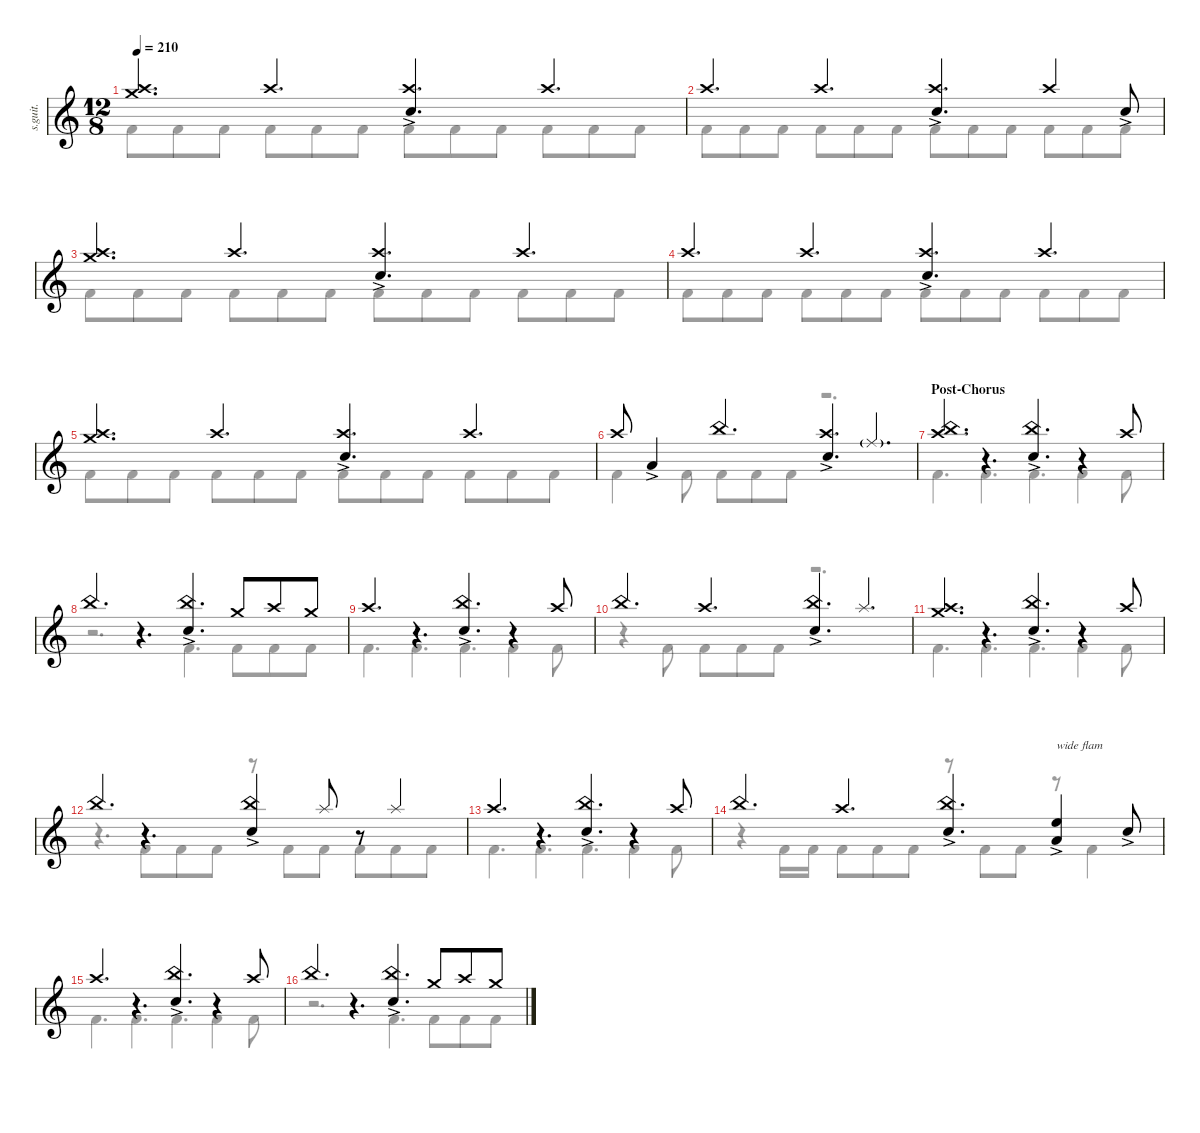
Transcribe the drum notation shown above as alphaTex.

\defaultSystemsLayout 4
\hideDynamics
\bracketExtendMode nobrackets
\track ("Percussion" "s.guit.") {instrument percussion}
\staff {score}
\articulation defaults
\voice
\ts (12 8)
\tempo 210
\clef g2
\ks c
("Crash high (hit)" "Crash medium (hit)").4{d lyrics (0 "") lyrics (1 "") lyrics (2 "") lyrics (3 "") lyrics (4 "") dy f} "Crash high (hit)".4{d lyrics (0 "") lyrics (1 "") lyrics (2 "") lyrics (3 "") lyrics (4 "")} ("Crash high (hit)" "Snare (hit) 2"{ac}).4{d lyrics (0 "") lyrics (1 "") lyrics (2 "") lyrics (3 "") lyrics (4 "")} "Crash high (hit)".4{d lyrics (0 "") lyrics (1 "") lyrics (2 "") lyrics (3 "") lyrics (4 "")} |
"Crash high (hit)".4{d lyrics (0 "") lyrics (1 "") lyrics (2 "") lyrics (3 "") lyrics (4 "")} "Crash high (hit)".4{d lyrics (0 "") lyrics (1 "") lyrics (2 "") lyrics (3 "") lyrics (4 "")} ("Crash high (hit)" "Snare (hit) 2"{ac}).4{d lyrics (0 "") lyrics (1 "") lyrics (2 "") lyrics (3 "") lyrics (4 "")} "Crash high (hit)".4{lyrics (0 "") lyrics (1 "") lyrics (2 "") lyrics (3 "") lyrics (4 "")} "Snare (hit) 2"{ac}.8{lyrics (0 "") lyrics (1 "") lyrics (2 "") lyrics (3 "") lyrics (4 "") dy mf} |
("Crash high (hit)" "Crash medium (hit)").4{d lyrics (0 "") lyrics (1 "") lyrics (2 "") lyrics (3 "") lyrics (4 "") dy f} "Crash high (hit)".4{d lyrics (0 "") lyrics (1 "") lyrics (2 "") lyrics (3 "") lyrics (4 "")} ("Crash high (hit)" "Snare (hit) 2"{ac}).4{d lyrics (0 "") lyrics (1 "") lyrics (2 "") lyrics (3 "") lyrics (4 "")} "Crash high (hit)".4{d lyrics (0 "") lyrics (1 "") lyrics (2 "") lyrics (3 "") lyrics (4 "")} |
"Crash high (hit)".4{d lyrics (0 "") lyrics (1 "") lyrics (2 "") lyrics (3 "") lyrics (4 "")} "Crash high (hit)".4{d lyrics (0 "") lyrics (1 "") lyrics (2 "") lyrics (3 "") lyrics (4 "")} ("Crash high (hit)" "Snare (hit) 2"{ac}).4{d lyrics (0 "") lyrics (1 "") lyrics (2 "") lyrics (3 "") lyrics (4 "")} "Crash high (hit)".4{d lyrics (0 "") lyrics (1 "") lyrics (2 "") lyrics (3 "") lyrics (4 "")} |
("Crash high (hit)" "Crash medium (hit)").4{d lyrics (0 "") lyrics (1 "") lyrics (2 "") lyrics (3 "") lyrics (4 "")} "Crash high (hit)".4{d lyrics (0 "") lyrics (1 "") lyrics (2 "") lyrics (3 "") lyrics (4 "")} ("Crash high (hit)" "Snare (hit) 2"{ac}).4{d lyrics (0 "") lyrics (1 "") lyrics (2 "") lyrics (3 "") lyrics (4 "")} "Crash high (hit)".4{d lyrics (0 "") lyrics (1 "") lyrics (2 "") lyrics (3 "") lyrics (4 "")} |
"Crash high (hit)".8{lyrics (0 "") lyrics (1 "") lyrics (2 "") lyrics (3 "") lyrics (4 "")} "Low Tom (hit)"{ac}.4{lyrics (0 "") lyrics (1 "") lyrics (2 "") lyrics (3 "") lyrics (4 "") dy mf} "China (hit)".4{d lyrics (0 "") lyrics (1 "") lyrics (2 "") lyrics (3 "") lyrics (4 "") dy f} ("Crash high (hit)" "Snare (hit) 2"{ac}).4{d lyrics (0 "") lyrics (1 "") lyrics (2 "") lyrics (3 "") lyrics (4 "")} "Ride (middle)"{g}.4{d lyrics (0 "") lyrics (1 "") lyrics (2 "") lyrics (3 "") lyrics (4 "") dy ff} |
\section ("" "Post-Chorus")
("Crash high (hit)" "China (hit)").4{d lyrics (0 "") lyrics (1 "") lyrics (2 "") lyrics (3 "") lyrics (4 "") dy f} r.4{d} ("China (hit)" "Snare (hit) 2"{ac}).4{d lyrics (0 "") lyrics (1 "") lyrics (2 "") lyrics (3 "") lyrics (4 "")} r.4 "Crash high (hit)".8{lyrics (0 "") lyrics (1 "") lyrics (2 "") lyrics (3 "") lyrics (4 "")} |
"China (hit)".4{d lyrics (0 "") lyrics (1 "") lyrics (2 "") lyrics (3 "") lyrics (4 "")} r.4{d} ("China (hit)" "Snare (hit) 2"{ac}).4{d lyrics (0 "") lyrics (1 "") lyrics (2 "") lyrics (3 "") lyrics (4 "")} "Crash medium (hit)".8{lyrics (0 "") lyrics (1 "") lyrics (2 "") lyrics (3 "") lyrics (4 "")} "Crash high (hit)".8{lyrics (0 "") lyrics (1 "") lyrics (2 "") lyrics (3 "") lyrics (4 "")} "Crash medium (hit)".8{lyrics (0 "") lyrics (1 "") lyrics (2 "") lyrics (3 "") lyrics (4 "")} |
"Crash high (hit)".4{d lyrics (0 "") lyrics (1 "") lyrics (2 "") lyrics (3 "") lyrics (4 "")} r.4{d} ("China (hit)" "Snare (hit) 2"{ac}).4{d lyrics (0 "") lyrics (1 "") lyrics (2 "") lyrics (3 "") lyrics (4 "")} r.4 "Crash high (hit)".8{lyrics (0 "") lyrics (1 "") lyrics (2 "") lyrics (3 "") lyrics (4 "")} |
"China (hit)".4{d lyrics (0 "") lyrics (1 "") lyrics (2 "") lyrics (3 "") lyrics (4 "")} "Crash high (hit)".4{d lyrics (0 "") lyrics (1 "") lyrics (2 "") lyrics (3 "") lyrics (4 "")} ("China (hit)" "Snare (hit) 2"{ac}).4{d lyrics (0 "") lyrics (1 "") lyrics (2 "") lyrics (3 "") lyrics (4 "")} "Splash (hit)".4{d lyrics (0 "") lyrics (1 "") lyrics (2 "") lyrics (3 "") lyrics (4 "")} |
("Crash high (hit)" "Crash medium (hit)").4{d lyrics (0 "") lyrics (1 "") lyrics (2 "") lyrics (3 "") lyrics (4 "")} r.4{d} ("China (hit)" "Snare (hit) 2"{ac}).4{d lyrics (0 "") lyrics (1 "") lyrics (2 "") lyrics (3 "") lyrics (4 "")} r.4 "Crash high (hit)".8{lyrics (0 "") lyrics (1 "") lyrics (2 "") lyrics (3 "") lyrics (4 "")} |
"China (hit)".4{d lyrics (0 "") lyrics (1 "") lyrics (2 "") lyrics (3 "") lyrics (4 "")} r.4{d} ("China (hit)" "Snare (hit) 2"{ac}).4{lyrics (0 "") lyrics (1 "") lyrics (2 "") lyrics (3 "") lyrics (4 "")} "Splash (hit)".8{lyrics (0 "") lyrics (1 "") lyrics (2 "") lyrics (3 "") lyrics (4 "")} r.8 "Splash (hit)".4{lyrics (0 "") lyrics (1 "") lyrics (2 "") lyrics (3 "") lyrics (4 "")} |
"Crash high (hit)".4{d lyrics (0 "") lyrics (1 "") lyrics (2 "") lyrics (3 "") lyrics (4 "")} r.4{d} ("China (hit)" "Snare (hit) 2"{ac}).4{d lyrics (0 "") lyrics (1 "") lyrics (2 "") lyrics (3 "") lyrics (4 "")} r.4 "Crash high (hit)".8{lyrics (0 "") lyrics (1 "") lyrics (2 "") lyrics (3 "") lyrics (4 "")} |
"China (hit)".4{d lyrics (0 "") lyrics (1 "") lyrics (2 "") lyrics (3 "") lyrics (4 "")} "Crash high (hit)".4{d lyrics (0 "") lyrics (1 "") lyrics (2 "") lyrics (3 "") lyrics (4 "")} ("China (hit)" "Snare (hit) 2"{ac}).4{d lyrics (0 "") lyrics (1 "") lyrics (2 "") lyrics (3 "") lyrics (4 "")} ("Low Tom (hit)"{ac} "High Floor Tom (hit)"{ac}).4{txt "wide flam" lyrics (0 "") lyrics (1 "") lyrics (2 "") lyrics (3 "") lyrics (4 "") dy mf} "Snare (hit) 2"{ac}.8{lyrics (0 "") lyrics (1 "") lyrics (2 "") lyrics (3 "") lyrics (4 "")} |
"Crash high (hit)".4{d lyrics (0 "") lyrics (1 "") lyrics (2 "") lyrics (3 "") lyrics (4 "") dy f} r.4{d} ("China (hit)" "Snare (hit) 2"{ac}).4{d lyrics (0 "") lyrics (1 "") lyrics (2 "") lyrics (3 "") lyrics (4 "")} r.4 "Crash high (hit)".8{lyrics (0 "") lyrics (1 "") lyrics (2 "") lyrics (3 "") lyrics (4 "")} |
"China (hit)".4{d lyrics (0 "") lyrics (1 "") lyrics (2 "") lyrics (3 "") lyrics (4 "")} r.4{d} ("China (hit)" "Snare (hit) 2"{ac}).4{d lyrics (0 "") lyrics (1 "") lyrics (2 "") lyrics (3 "") lyrics (4 "")} "Crash medium (hit)".8{lyrics (0 "") lyrics (1 "") lyrics (2 "") lyrics (3 "") lyrics (4 "")} "Crash high (hit)".8{lyrics (0 "") lyrics (1 "") lyrics (2 "") lyrics (3 "") lyrics (4 "")} "Crash medium (hit)".8{lyrics (0 "") lyrics (1 "") lyrics (2 "") lyrics (3 "") lyrics (4 "")}
\voice
\clef g2
\ottava regular
\simile none
\ks c "Kick (hit) 2".8{lyrics (0 "") lyrics (1 "") lyrics (2 "") lyrics (3 "") lyrics (4 "") dy f} "Kick (hit) 2".8{lyrics (0 "") lyrics (1 "") lyrics (2 "") lyrics (3 "") lyrics (4 "")} "Kick (hit) 2".8{lyrics (0 "") lyrics (1 "") lyrics (2 "") lyrics (3 "") lyrics (4 "")} "Kick (hit) 2".8{lyrics (0 "") lyrics (1 "") lyrics (2 "") lyrics (3 "") lyrics (4 "")} "Kick (hit) 2".8{lyrics (0 "") lyrics (1 "") lyrics (2 "") lyrics (3 "") lyrics (4 "")} "Kick (hit) 2".8{lyrics (0 "") lyrics (1 "") lyrics (2 "") lyrics (3 "") lyrics (4 "")} "Kick (hit) 2".8{lyrics (0 "") lyrics (1 "") lyrics (2 "") lyrics (3 "") lyrics (4 "")} "Kick (hit) 2".8{lyrics (0 "") lyrics (1 "") lyrics (2 "") lyrics (3 "") lyrics (4 "")} "Kick (hit) 2".8{lyrics (0 "") lyrics (1 "") lyrics (2 "") lyrics (3 "") lyrics (4 "")} "Kick (hit) 2".8{lyrics (0 "") lyrics (1 "") lyrics (2 "") lyrics (3 "") lyrics (4 "")} "Kick (hit) 2".8{lyrics (0 "") lyrics (1 "") lyrics (2 "") lyrics (3 "") lyrics (4 "")} "Kick (hit) 2".8{lyrics (0 "") lyrics (1 "") lyrics (2 "") lyrics (3 "") lyrics (4 "")}
|
"Kick (hit) 2".8{lyrics (0 "") lyrics (1 "") lyrics (2 "") lyrics (3 "") lyrics (4 "")} "Kick (hit) 2".8{lyrics (0 "") lyrics (1 "") lyrics (2 "") lyrics (3 "") lyrics (4 "")} "Kick (hit) 2".8{lyrics (0 "") lyrics (1 "") lyrics (2 "") lyrics (3 "") lyrics (4 "")} "Kick (hit) 2".8{lyrics (0 "") lyrics (1 "") lyrics (2 "") lyrics (3 "") lyrics (4 "")} "Kick (hit) 2".8{lyrics (0 "") lyrics (1 "") lyrics (2 "") lyrics (3 "") lyrics (4 "")} "Kick (hit) 2".8{lyrics (0 "") lyrics (1 "") lyrics (2 "") lyrics (3 "") lyrics (4 "")} "Kick (hit) 2".8{lyrics (0 "") lyrics (1 "") lyrics (2 "") lyrics (3 "") lyrics (4 "")} "Kick (hit) 2".8{lyrics (0 "") lyrics (1 "") lyrics (2 "") lyrics (3 "") lyrics (4 "")} "Kick (hit) 2".8{lyrics (0 "") lyrics (1 "") lyrics (2 "") lyrics (3 "") lyrics (4 "")} "Kick (hit) 2".8{lyrics (0 "") lyrics (1 "") lyrics (2 "") lyrics (3 "") lyrics (4 "")} "Kick (hit) 2".8{lyrics (0 "") lyrics (1 "") lyrics (2 "") lyrics (3 "") lyrics (4 "")} "Kick (hit) 2".8{lyrics (0 "") lyrics (1 "") lyrics (2 "") lyrics (3 "") lyrics (4 "")} |
"Kick (hit) 2".8{lyrics (0 "") lyrics (1 "") lyrics (2 "") lyrics (3 "") lyrics (4 "")} "Kick (hit) 2".8{lyrics (0 "") lyrics (1 "") lyrics (2 "") lyrics (3 "") lyrics (4 "")} "Kick (hit) 2".8{lyrics (0 "") lyrics (1 "") lyrics (2 "") lyrics (3 "") lyrics (4 "")} "Kick (hit) 2".8{lyrics (0 "") lyrics (1 "") lyrics (2 "") lyrics (3 "") lyrics (4 "")} "Kick (hit) 2".8{lyrics (0 "") lyrics (1 "") lyrics (2 "") lyrics (3 "") lyrics (4 "")} "Kick (hit) 2".8{lyrics (0 "") lyrics (1 "") lyrics (2 "") lyrics (3 "") lyrics (4 "")} "Kick (hit) 2".8{lyrics (0 "") lyrics (1 "") lyrics (2 "") lyrics (3 "") lyrics (4 "")} "Kick (hit) 2".8{lyrics (0 "") lyrics (1 "") lyrics (2 "") lyrics (3 "") lyrics (4 "")} "Kick (hit) 2".8{lyrics (0 "") lyrics (1 "") lyrics (2 "") lyrics (3 "") lyrics (4 "")} "Kick (hit) 2".8{lyrics (0 "") lyrics (1 "") lyrics (2 "") lyrics (3 "") lyrics (4 "")} "Kick (hit) 2".8{lyrics (0 "") lyrics (1 "") lyrics (2 "") lyrics (3 "") lyrics (4 "")} "Kick (hit) 2".8{lyrics (0 "") lyrics (1 "") lyrics (2 "") lyrics (3 "") lyrics (4 "")} |
"Kick (hit) 2".8{lyrics (0 "") lyrics (1 "") lyrics (2 "") lyrics (3 "") lyrics (4 "")} "Kick (hit) 2".8{lyrics (0 "") lyrics (1 "") lyrics (2 "") lyrics (3 "") lyrics (4 "")} "Kick (hit) 2".8{lyrics (0 "") lyrics (1 "") lyrics (2 "") lyrics (3 "") lyrics (4 "")} "Kick (hit) 2".8{lyrics (0 "") lyrics (1 "") lyrics (2 "") lyrics (3 "") lyrics (4 "")} "Kick (hit) 2".8{lyrics (0 "") lyrics (1 "") lyrics (2 "") lyrics (3 "") lyrics (4 "")} "Kick (hit) 2".8{lyrics (0 "") lyrics (1 "") lyrics (2 "") lyrics (3 "") lyrics (4 "")} "Kick (hit) 2".8{lyrics (0 "") lyrics (1 "") lyrics (2 "") lyrics (3 "") lyrics (4 "")} "Kick (hit) 2".8{lyrics (0 "") lyrics (1 "") lyrics (2 "") lyrics (3 "") lyrics (4 "")} "Kick (hit) 2".8{lyrics (0 "") lyrics (1 "") lyrics (2 "") lyrics (3 "") lyrics (4 "")} "Kick (hit) 2".8{lyrics (0 "") lyrics (1 "") lyrics (2 "") lyrics (3 "") lyrics (4 "")} "Kick (hit) 2".8{lyrics (0 "") lyrics (1 "") lyrics (2 "") lyrics (3 "") lyrics (4 "")} "Kick (hit) 2".8{lyrics (0 "") lyrics (1 "") lyrics (2 "") lyrics (3 "") lyrics (4 "")} |
"Kick (hit) 2".8{lyrics (0 "") lyrics (1 "") lyrics (2 "") lyrics (3 "") lyrics (4 "")} "Kick (hit) 2".8{lyrics (0 "") lyrics (1 "") lyrics (2 "") lyrics (3 "") lyrics (4 "")} "Kick (hit) 2".8{lyrics (0 "") lyrics (1 "") lyrics (2 "") lyrics (3 "") lyrics (4 "")} "Kick (hit) 2".8{lyrics (0 "") lyrics (1 "") lyrics (2 "") lyrics (3 "") lyrics (4 "")} "Kick (hit) 2".8{lyrics (0 "") lyrics (1 "") lyrics (2 "") lyrics (3 "") lyrics (4 "")} "Kick (hit) 2".8{lyrics (0 "") lyrics (1 "") lyrics (2 "") lyrics (3 "") lyrics (4 "")} "Kick (hit) 2".8{lyrics (0 "") lyrics (1 "") lyrics (2 "") lyrics (3 "") lyrics (4 "")} "Kick (hit) 2".8{lyrics (0 "") lyrics (1 "") lyrics (2 "") lyrics (3 "") lyrics (4 "")} "Kick (hit) 2".8{lyrics (0 "") lyrics (1 "") lyrics (2 "") lyrics (3 "") lyrics (4 "")} "Kick (hit) 2".8{lyrics (0 "") lyrics (1 "") lyrics (2 "") lyrics (3 "") lyrics (4 "")} "Kick (hit) 2".8{lyrics (0 "") lyrics (1 "") lyrics (2 "") lyrics (3 "") lyrics (4 "")} "Kick (hit) 2".8{lyrics (0 "") lyrics (1 "") lyrics (2 "") lyrics (3 "") lyrics (4 "")} |
"Kick (hit) 2".4{lyrics (0 "") lyrics (1 "") lyrics (2 "") lyrics (3 "") lyrics (4 "")} "Kick (hit) 2".8{lyrics (0 "") lyrics (1 "") lyrics (2 "") lyrics (3 "") lyrics (4 "")} "Kick (hit) 2".8{lyrics (0 "") lyrics (1 "") lyrics (2 "") lyrics (3 "") lyrics (4 "")} "Kick (hit) 2".8{lyrics (0 "") lyrics (1 "") lyrics (2 "") lyrics (3 "") lyrics (4 "")} "Kick (hit) 2".8{lyrics (0 "") lyrics (1 "") lyrics (2 "") lyrics (3 "") lyrics (4 "")} r.2{d} |
"Kick (hit) 2".4{d lyrics (0 "") lyrics (1 "") lyrics (2 "") lyrics (3 "") lyrics (4 "")} "Kick (hit) 2".4{d lyrics (0 "") lyrics (1 "") lyrics (2 "") lyrics (3 "") lyrics (4 "")} "Kick (hit) 2".4{d lyrics (0 "") lyrics (1 "") lyrics (2 "") lyrics (3 "") lyrics (4 "")} "Kick (hit) 2".4{lyrics (0 "") lyrics (1 "") lyrics (2 "") lyrics (3 "") lyrics (4 "")} "Kick (hit) 2".8{lyrics (0 "") lyrics (1 "") lyrics (2 "") lyrics (3 "") lyrics (4 "")} |
r.2{d} "Kick (hit) 2".4{d lyrics (0 "") lyrics (1 "") lyrics (2 "") lyrics (3 "") lyrics (4 "")} "Kick (hit) 2".8{lyrics (0 "") lyrics (1 "") lyrics (2 "") lyrics (3 "") lyrics (4 "")} "Kick (hit) 2".8{lyrics (0 "") lyrics (1 "") lyrics (2 "") lyrics (3 "") lyrics (4 "")} "Kick (hit) 2".8{lyrics (0 "") lyrics (1 "") lyrics (2 "") lyrics (3 "") lyrics (4 "")} |
"Kick (hit) 2".4{d lyrics (0 "") lyrics (1 "") lyrics (2 "") lyrics (3 "") lyrics (4 "")} "Kick (hit) 2".4{d lyrics (0 "") lyrics (1 "") lyrics (2 "") lyrics (3 "") lyrics (4 "")} "Kick (hit) 2".4{d lyrics (0 "") lyrics (1 "") lyrics (2 "") lyrics (3 "") lyrics (4 "")} "Kick (hit) 2".4{lyrics (0 "") lyrics (1 "") lyrics (2 "") lyrics (3 "") lyrics (4 "")} "Kick (hit) 2".8{lyrics (0 "") lyrics (1 "") lyrics (2 "") lyrics (3 "") lyrics (4 "")} |
r.4 "Kick (hit) 2".8{lyrics (0 "") lyrics (1 "") lyrics (2 "") lyrics (3 "") lyrics (4 "")} "Kick (hit) 2".8{lyrics (0 "") lyrics (1 "") lyrics (2 "") lyrics (3 "") lyrics (4 "")} "Kick (hit) 2".8{lyrics (0 "") lyrics (1 "") lyrics (2 "") lyrics (3 "") lyrics (4 "")} "Kick (hit) 2".8{lyrics (0 "") lyrics (1 "") lyrics (2 "") lyrics (3 "") lyrics (4 "")} r.2{d} |
"Kick (hit) 2".4{d lyrics (0 "") lyrics (1 "") lyrics (2 "") lyrics (3 "") lyrics (4 "")} "Kick (hit) 2".4{d lyrics (0 "") lyrics (1 "") lyrics (2 "") lyrics (3 "") lyrics (4 "")} "Kick (hit) 2".4{d lyrics (0 "") lyrics (1 "") lyrics (2 "") lyrics (3 "") lyrics (4 "")} "Kick (hit) 2".4{lyrics (0 "") lyrics (1 "") lyrics (2 "") lyrics (3 "") lyrics (4 "")} "Kick (hit) 2".8{lyrics (0 "") lyrics (1 "") lyrics (2 "") lyrics (3 "") lyrics (4 "")} |
r.4{d} "Kick (hit) 2".8{lyrics (0 "") lyrics (1 "") lyrics (2 "") lyrics (3 "") lyrics (4 "")} "Kick (hit) 2".8{lyrics (0 "") lyrics (1 "") lyrics (2 "") lyrics (3 "") lyrics (4 "")} "Kick (hit) 2".8{lyrics (0 "") lyrics (1 "") lyrics (2 "") lyrics (3 "") lyrics (4 "")} r.8 "Kick (hit) 2".8{lyrics (0 "") lyrics (1 "") lyrics (2 "") lyrics (3 "") lyrics (4 "")} "Kick (hit) 2".8{lyrics (0 "") lyrics (1 "") lyrics (2 "") lyrics (3 "") lyrics (4 "")} "Kick (hit) 2".8{lyrics (0 "") lyrics (1 "") lyrics (2 "") lyrics (3 "") lyrics (4 "")} "Kick (hit) 2".8{lyrics (0 "") lyrics (1 "") lyrics (2 "") lyrics (3 "") lyrics (4 "")} "Kick (hit) 2".8{lyrics (0 "") lyrics (1 "") lyrics (2 "") lyrics (3 "") lyrics (4 "")} |
"Kick (hit) 2".4{d lyrics (0 "") lyrics (1 "") lyrics (2 "") lyrics (3 "") lyrics (4 "")} "Kick (hit) 2".4{d lyrics (0 "") lyrics (1 "") lyrics (2 "") lyrics (3 "") lyrics (4 "")} "Kick (hit) 2".4{d lyrics (0 "") lyrics (1 "") lyrics (2 "") lyrics (3 "") lyrics (4 "")} "Kick (hit) 2".4{lyrics (0 "") lyrics (1 "") lyrics (2 "") lyrics (3 "") lyrics (4 "")} "Kick (hit) 2".8{lyrics (0 "") lyrics (1 "") lyrics (2 "") lyrics (3 "") lyrics (4 "")} |
r.4 "Kick (hit) 2".16{lyrics (0 "") lyrics (1 "") lyrics (2 "") lyrics (3 "") lyrics (4 "")} "Kick (hit) 2".16{lyrics (0 "") lyrics (1 "") lyrics (2 "") lyrics (3 "") lyrics (4 "")} "Kick (hit) 2".8{lyrics (0 "") lyrics (1 "") lyrics (2 "") lyrics (3 "") lyrics (4 "")} "Kick (hit) 2".8{lyrics (0 "") lyrics (1 "") lyrics (2 "") lyrics (3 "") lyrics (4 "")} "Kick (hit) 2".8{lyrics (0 "") lyrics (1 "") lyrics (2 "") lyrics (3 "") lyrics (4 "")} r.8 "Kick (hit) 2".8{lyrics (0 "") lyrics (1 "") lyrics (2 "") lyrics (3 "") lyrics (4 "")} "Kick (hit) 2".8{lyrics (0 "") lyrics (1 "") lyrics (2 "") lyrics (3 "") lyrics (4 "")} r.8 "Kick (hit) 2".4{lyrics (0 "") lyrics (1 "") lyrics (2 "") lyrics (3 "") lyrics (4 "")} |
"Kick (hit) 2".4{d lyrics (0 "") lyrics (1 "") lyrics (2 "") lyrics (3 "") lyrics (4 "")} "Kick (hit) 2".4{d lyrics (0 "") lyrics (1 "") lyrics (2 "") lyrics (3 "") lyrics (4 "")} "Kick (hit) 2".4{d lyrics (0 "") lyrics (1 "") lyrics (2 "") lyrics (3 "") lyrics (4 "")} "Kick (hit) 2".4{lyrics (0 "") lyrics (1 "") lyrics (2 "") lyrics (3 "") lyrics (4 "")} "Kick (hit) 2".8{lyrics (0 "") lyrics (1 "") lyrics (2 "") lyrics (3 "") lyrics (4 "")} |
r.2{d} "Kick (hit) 2".4{d lyrics (0 "") lyrics (1 "") lyrics (2 "") lyrics (3 "") lyrics (4 "")} "Kick (hit) 2".8{lyrics (0 "") lyrics (1 "") lyrics (2 "") lyrics (3 "") lyrics (4 "")} "Kick (hit) 2".8{lyrics (0 "") lyrics (1 "") lyrics (2 "") lyrics (3 "") lyrics (4 "")} "Kick (hit) 2".8{lyrics (0 "") lyrics (1 "") lyrics (2 "") lyrics (3 "") lyrics (4 "")}
